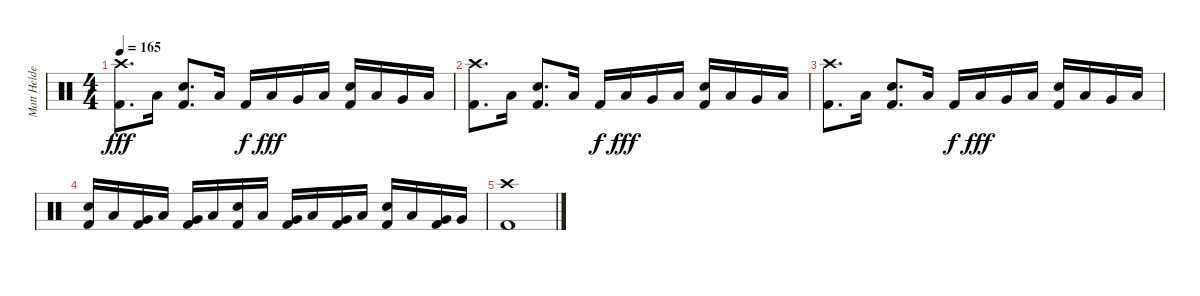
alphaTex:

\track ("Matt Helders (Drums)" "Matt Helde") {instrument percussion}
\staff {score}
\articulation defaults
\ts (4 4)
\tempo 165
\clef neutral
\ks c
("Crash high (hit)" "Kick (hit) 2").8{d dy fff} "Low Tom (hit)".16 ("Electric Snare (hit)" "Kick (hit) 2").8{d} "Low Tom (hit)".16 "Kick (hit) 2".16{dy f} "Low Tom (hit)".16{dy fff} "Very Low Tom (hit)".16 "Low Tom (hit)".16 ("Electric Snare (hit)" "Kick (hit) 2").16 "Low Tom (hit)".16 "Very Low Tom (hit)".16 "Low Tom (hit)".16 |
("Crash high (hit)" "Kick (hit) 2").8{d} "Low Tom (hit)".16 ("Electric Snare (hit)" "Kick (hit) 2").8{d} "Low Tom (hit)".16 "Kick (hit) 2".16{dy f} "Low Tom (hit)".16{dy fff} "Very Low Tom (hit)".16 "Low Tom (hit)".16 ("Electric Snare (hit)" "Kick (hit) 2").16 "Low Tom (hit)".16 "Very Low Tom (hit)".16 "Low Tom (hit)".16 |
("Crash high (hit)" "Kick (hit) 2").8{d} "Low Tom (hit)".16 ("Electric Snare (hit)" "Kick (hit) 2").8{d} "Low Tom (hit)".16 "Kick (hit) 2".16{dy f} "Low Tom (hit)".16{dy fff} "Very Low Tom (hit)".16 "Low Tom (hit)".16 ("Electric Snare (hit)" "Kick (hit) 2").16 "Low Tom (hit)".16 "Very Low Tom (hit)".16 "Low Tom (hit)".16 |
("Electric Snare (hit)" "Kick (hit) 2").16 "Low Tom (hit)".16 ("Very Low Tom (hit)" "Kick (hit) 2").16 "Low Tom (hit)".16 ("Very Low Tom (hit)" "Kick (hit) 2").16 "Low Tom (hit)".16 ("Electric Snare (hit)" "Kick (hit) 2").16 "Low Tom (hit)".16 ("Very Low Tom (hit)" "Kick (hit) 2").16 "Low Tom (hit)".16 ("Very Low Tom (hit)" "Kick (hit) 2").16 "Low Tom (hit)".16 ("Electric Snare (hit)" "Kick (hit) 2").16 "Low Tom (hit)".16 ("Very Low Tom (hit)" "Kick (hit) 2").16 "Very Low Tom (hit)".16 |
("Crash high (hit)" "Kick (hit) 2").1
